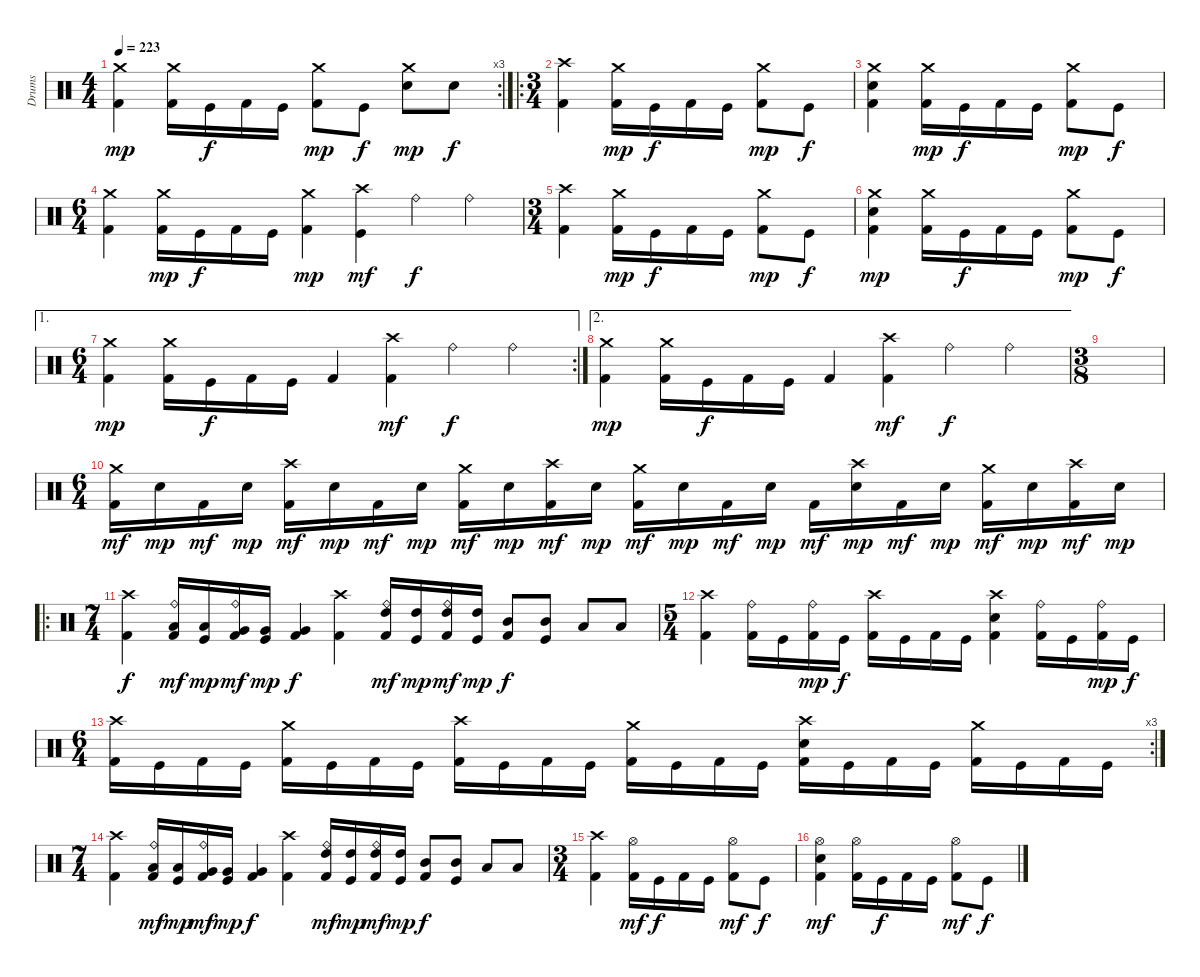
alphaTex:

\track ("Drums" "Drums") {instrument percussion}
\staff {score}
\articulation defaults
\rc 3
\ts (4 4)
\tempo 223
\clef neutral
\ks c
("Crash medium (hit)" "Kick (hit) 2").4{dy mp} ("Crash medium (hit)" "Kick (hit) 2").16 "Kick (hit)".16{dy f} "Kick (hit) 2".16 "Kick (hit)".16 ("Crash medium (hit)" "Kick (hit) 2").8{dy mp} "Kick (hit)".8{dy f} ("Crash medium (hit)" "Snare (hit) 2").8{dy mp} "Snare (hit) 2".8{dy f} |
\ro
\ts (3 4)
("Crash high (hit)" "Kick (hit) 2").4 ("Crash medium (hit)" "Kick (hit) 2").16{dy mp} "Kick (hit)".16{dy f} "Kick (hit) 2".16 "Kick (hit)".16 ("Crash medium (hit)" "Kick (hit) 2").8{dy mp} "Kick (hit)".8{dy f} |
("Crash medium (hit)" "Snare (hit) 2" "Kick (hit) 2").4 ("Crash medium (hit)" "Kick (hit) 2").16{dy mp} "Kick (hit)".16{dy f} "Kick (hit) 2".16 "Kick (hit)".16 ("Crash medium (hit)" "Kick (hit) 2").8{dy mp} "Kick (hit)".8{dy f} |
\ts (6 4)
("Crash medium (hit)" "Kick (hit) 2").4 ("Crash medium (hit)" "Kick (hit) 2").16{dy mp} "Kick (hit)".16{dy f} "Kick (hit) 2".16 "Kick (hit)".16 ("Crash medium (hit)" "Kick (hit) 2").4{dy mp} ("Crash high (hit)" "Kick (hit)").4{dy mf} "Ride (bell)".4{dy f} "Ride (bell)".4 |
\ts (3 4)
("Crash high (hit)" "Kick (hit) 2").4 ("Crash medium (hit)" "Kick (hit) 2").16{dy mp} "Kick (hit)".16{dy f} "Kick (hit) 2".16 "Kick (hit)".16 ("Crash medium (hit)" "Kick (hit) 2").8{dy mp} "Kick (hit)".8{dy f} |
("Crash medium (hit)" "Snare (hit) 2" "Kick (hit) 2").4{dy mp} ("Crash medium (hit)" "Kick (hit) 2").16 "Kick (hit)".16{dy f} "Kick (hit) 2".16 "Kick (hit)".16 ("Crash medium (hit)" "Kick (hit) 2").8{dy mp} "Kick (hit)".8{dy f} |
\ae 1
\rc 2
\ts (6 4)
("Crash medium (hit)" "Kick (hit) 2").4{dy mp} ("Crash medium (hit)" "Kick (hit) 2").16 "Kick (hit)".16{dy f} "Kick (hit) 2".16 "Kick (hit)".16 "Kick (hit) 2".4 ("Crash high (hit)" "Kick (hit) 2").4{dy mf} "Ride (bell)".4{dy f} "Ride (bell)".4 |
\ae 2
("Crash medium (hit)" "Kick (hit) 2").4{dy mp} ("Crash medium (hit)" "Kick (hit) 2").16 "Kick (hit)".16{dy f} "Kick (hit) 2".16 "Kick (hit)".16 "Kick (hit) 2".4 ("Crash high (hit)" "Kick (hit) 2").4{dy mf} "Ride (bell)".4{dy f} "Ride (bell)".4 |
\ts (3 8)
|
\ts (6 4)
("Crash medium (hit)" "Kick (hit) 2").16{dy mf} "Snare (hit) 2".16{dy mp} "Kick (hit) 2".16{dy mf} "Snare (hit) 2".16{dy mp} ("Crash high (hit)" "Kick (hit) 2").16{dy mf} "Snare (hit) 2".16{dy mp} "Kick (hit) 2".16{dy mf} "Snare (hit) 2".16{dy mp} ("Crash medium (hit)" "Kick (hit) 2").16{dy mf} "Snare (hit) 2".16{dy mp} ("Crash high (hit)" "Kick (hit) 2").16{dy mf} "Snare (hit) 2".16{dy mp} ("Crash medium (hit)" "Kick (hit) 2").16{dy mf} "Snare (hit) 2".16{dy mp} "Kick (hit) 2".16{dy mf} "Snare (hit) 2".16{dy mp} "Kick (hit) 2".16{dy mf} ("Crash high (hit)" "Snare (hit) 2").16{dy mp} "Kick (hit) 2".16{dy mf} "Snare (hit) 2".16{dy mp} ("Crash medium (hit)" "Kick (hit) 2").16{dy mf} "Snare (hit) 2".16{dy mp} ("Crash high (hit)" "Kick (hit) 2").16{dy mf} "Snare (hit) 2".16{dy mp} |
\ro
\ts (7 4)
("Crash high (hit)" "Kick (hit) 2").4{dy f} ("Ride (bell)" "Low Tom (hit)" "Kick (hit) 2").16{dy mf} ("Low Tom (hit)" "Kick (hit)").16{dy mp} ("Ride (bell)" "Very Low Tom (hit)" "Kick (hit) 2").16{dy mf} ("Very Low Tom (hit)" "Kick (hit)").16{dy mp} ("Very Low Tom (hit)" "Kick (hit) 2").4{dy f} ("Crash high (hit)" "Kick (hit) 2").4 ("Ride (bell)" "High Tom (hit)" "Kick (hit) 2").16{dy mf} ("High Tom (hit)" "Kick (hit)").16{dy mp} ("Ride (bell)" "High Tom (hit)" "Kick (hit) 2").16{dy mf} ("High Tom (hit)" "Kick (hit)").16{dy mp} ("Mid Tom (hit)" "Kick (hit) 2").8{dy f} ("Mid Tom (hit)" "Kick (hit)").8 "Low Tom (hit)".8 "Low Tom (hit)".8 |
\ts (5 4)
("Crash high (hit)" "Kick (hit) 2").4 ("Ride (bell)" "Kick (hit) 2").16 "Kick (hit)".16 ("Ride (bell)" "Kick (hit) 2").16{dy mp} "Kick (hit)".16{dy f} ("Crash high (hit)" "Kick (hit) 2").16 "Kick (hit)".16 "Kick (hit) 2".16 "Kick (hit)".16 ("Crash high (hit)" "Snare (hit) 2" "Kick (hit) 2").4 ("Ride (bell)" "Kick (hit) 2").16 "Kick (hit)".16 ("Ride (bell)" "Kick (hit) 2").16{dy mp} "Kick (hit)".16{dy f} |
\rc 3
\ts (6 4)
("Crash high (hit)" "Kick (hit) 2").16 "Kick (hit)".16 "Kick (hit) 2".16 "Kick (hit)".16 ("Crash medium (hit)" "Kick (hit) 2").16 "Kick (hit)".16 "Kick (hit) 2".16 "Kick (hit)".16 ("Crash high (hit)" "Kick (hit) 2").16 "Kick (hit)".16 "Kick (hit) 2".16 "Kick (hit)".16 ("Crash medium (hit)" "Kick (hit) 2").16 "Kick (hit)".16 "Kick (hit) 2".16 "Kick (hit)".16 ("Crash high (hit)" "Snare (hit) 2" "Kick (hit) 2").16 "Kick (hit)".16 "Kick (hit) 2".16 "Kick (hit)".16 ("Crash medium (hit)" "Kick (hit) 2").16 "Kick (hit)".16 "Kick (hit) 2".16 "Kick (hit)".16 |
\ts (7 4)
("Crash high (hit)" "Kick (hit) 2").4 ("Ride (bell)" "Low Tom (hit)" "Kick (hit) 2").16{dy mf} ("Low Tom (hit)" "Kick (hit)").16{dy mp} ("Ride (bell)" "Very Low Tom (hit)" "Kick (hit) 2").16{dy mf} ("Very Low Tom (hit)" "Kick (hit)").16{dy mp} ("Very Low Tom (hit)" "Kick (hit) 2").4{dy f} ("Crash high (hit)" "Kick (hit) 2").4 ("Ride (bell)" "High Tom (hit)" "Kick (hit) 2").16{dy mf} ("High Tom (hit)" "Kick (hit)").16{dy mp} ("Ride (bell)" "High Tom (hit)" "Kick (hit) 2").16{dy mf} ("High Tom (hit)" "Kick (hit)").16{dy mp} ("Mid Tom (hit)" "Kick (hit) 2").8{dy f} ("Mid Tom (hit)" "Kick (hit)").8 "Low Tom (hit)".8 "Low Tom (hit)".8 |
\ts (3 4)
("Crash high (hit)" "Kick (hit) 2").4 ("Hi-Hat (open)" "Kick (hit) 2").16{dy mf} "Kick (hit)".16{dy f} "Kick (hit) 2".16 "Kick (hit)".16 ("Hi-Hat (open)" "Kick (hit) 2").8{dy mf} "Kick (hit)".8{dy f} |
("Hi-Hat (open)" "Snare (hit) 2" "Kick (hit) 2").4{dy mf} ("Hi-Hat (open)" "Kick (hit) 2").16 "Kick (hit)".16{dy f} "Kick (hit) 2".16 "Kick (hit)".16 ("Hi-Hat (open)" "Kick (hit) 2").8{dy mf} "Kick (hit)".8{dy f}
